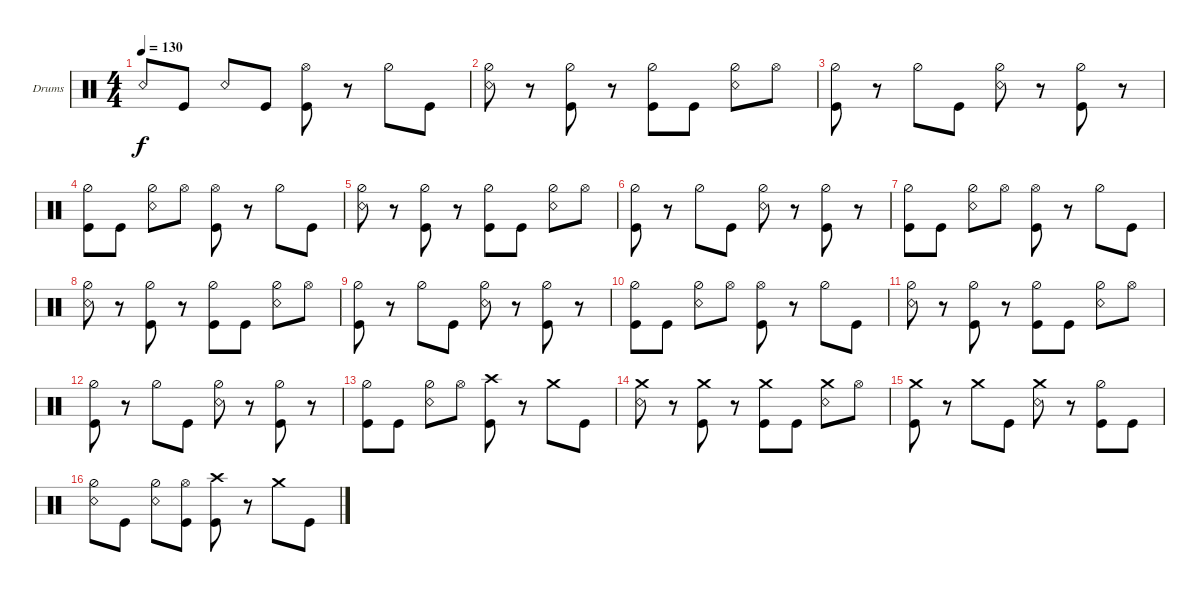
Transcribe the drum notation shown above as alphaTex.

\bracketExtendMode groupsimilarinstruments
\firstSystemTrackNameOrientation horizontal
\otherSystemsTrackNameOrientation horizontal
\track ("Drumkit" "Drums") {instrument percussion}
\staff {score}
\articulation defaults
\ts (4 4)
\tempo 130
\clef neutral
\scale
0.333333
\ks c "Snare (rim shot)".8{dy f} "Kick (hit)".8 "Snare (rim shot)".8 "Kick (hit)".8
("Hi-Hat (open)" "Kick (hit)").8 r.8 "Hi-Hat (half)".8 "Kick (hit)".8 |
\scale
0.333333 ("Hi-Hat (half)" "Snare (rim shot)").8 r.8 ("Hi-Hat (half)" "Kick (hit)").8 r.8 ("Hi-Hat (half)" "Kick (hit)").8 "Kick (hit)".8 ("Hi-Hat (half)" "Snare (rim shot)").8 "Hi-Hat (open)".8 |
\scale
0.333333 ("Kick (hit)" "Hi-Hat (half)").8 r.8 "Hi-Hat (half)".8 "Kick (hit)".8 ("Hi-Hat (half)" "Snare (rim shot)").8 r.8 ("Hi-Hat (half)" "Kick (hit)").8 r.8 |
\scale
0.333333 ("Hi-Hat (half)" "Kick (hit)").8 "Kick (hit)".8 ("Hi-Hat (half)" "Snare (rim shot)").8 "Hi-Hat (open)".8 ("Hi-Hat (open)" "Kick (hit)").8 r.8 "Hi-Hat (half)".8 "Kick (hit)".8 |
\scale
0.333333 ("Hi-Hat (half)" "Snare (rim shot)").8 r.8 ("Hi-Hat (half)" "Kick (hit)").8 r.8 ("Hi-Hat (half)" "Kick (hit)").8 "Kick (hit)".8 ("Hi-Hat (half)" "Snare (rim shot)").8 "Hi-Hat (open)".8 |
\scale
0.333333 ("Kick (hit)" "Hi-Hat (half)").8 r.8 "Hi-Hat (half)".8 "Kick (hit)".8 ("Hi-Hat (half)" "Snare (rim shot)").8 r.8 ("Hi-Hat (half)" "Kick (hit)").8 r.8 |
\scale
0.333333 ("Hi-Hat (half)" "Kick (hit)").8 "Kick (hit)".8 ("Hi-Hat (half)" "Snare (rim shot)").8 "Hi-Hat (open)".8 ("Hi-Hat (open)" "Kick (hit)").8 r.8 "Hi-Hat (half)".8 "Kick (hit)".8 |
\scale
0.333333 ("Hi-Hat (half)" "Snare (rim shot)").8 r.8 ("Hi-Hat (half)" "Kick (hit)").8 r.8 ("Hi-Hat (half)" "Kick (hit)").8 "Kick (hit)".8 ("Hi-Hat (half)" "Snare (rim shot)").8 "Hi-Hat (open)".8 |
\scale
0.333333 ("Kick (hit)" "Hi-Hat (half)").8 r.8 "Hi-Hat (half)".8 "Kick (hit)".8 ("Hi-Hat (half)" "Snare (rim shot)").8 r.8 ("Hi-Hat (half)" "Kick (hit)").8 r.8 |
\scale
0.333333 ("Hi-Hat (half)" "Kick (hit)").8 "Kick (hit)".8 ("Hi-Hat (half)" "Snare (rim shot)").8 "Hi-Hat (open)".8 ("Hi-Hat (open)" "Kick (hit)").8 r.8 "Hi-Hat (half)".8 "Kick (hit)".8 |
\scale
0.333333 ("Hi-Hat (half)" "Snare (rim shot)").8 r.8 ("Hi-Hat (half)" "Kick (hit)").8 r.8 ("Hi-Hat (half)" "Kick (hit)").8 "Kick (hit)".8 ("Hi-Hat (half)" "Snare (rim shot)").8 "Hi-Hat (open)".8 |
\scale
0.333333 ("Kick (hit)" "Hi-Hat (half)").8 r.8 "Hi-Hat (half)".8 "Kick (hit)".8 ("Hi-Hat (half)" "Snare (rim shot)").8 r.8 ("Hi-Hat (half)" "Kick (hit)").8 r.8 |
\scale
0.333333 ("Hi-Hat (half)" "Kick (hit)").8 "Kick (hit)".8 ("Hi-Hat (half)" "Snare (rim shot)").8 "Hi-Hat (open)".8 ("Kick (hit)" "Crash high (hit)").8 r.8 "Crash medium (hit)".8 "Kick (hit)".8 |
\scale
0.333333 ("Snare (rim shot)" "Crash medium (hit)").8 r.8 ("Kick (hit)" "Crash medium (hit)").8 r.8 ("Kick (hit)" "Crash medium (hit)").8 "Kick (hit)".8 ("Snare (rim shot)" "Crash medium (hit)").8 "Hi-Hat (open)".8 |
\scale
0.333333 ("Kick (hit)" "Crash medium (hit)").8 r.8 "Crash medium (hit)".8 "Kick (hit)".8 ("Snare (rim shot)" "Crash medium (hit)").8 r.8 ("Hi-Hat (half)" "Kick (hit)").8 "Kick (hit)".8 |
\scale
0.333333 ("Hi-Hat (half)" "Snare (rim shot)").8 "Kick (hit)".8 ("Hi-Hat (half)" "Snare (rim shot)").8 ("Hi-Hat (open)" "Kick (hit)").8 ("Kick (hit)" "Crash high (hit)").8 r.8 "Crash medium (hit)".8 "Kick (hit)".8
